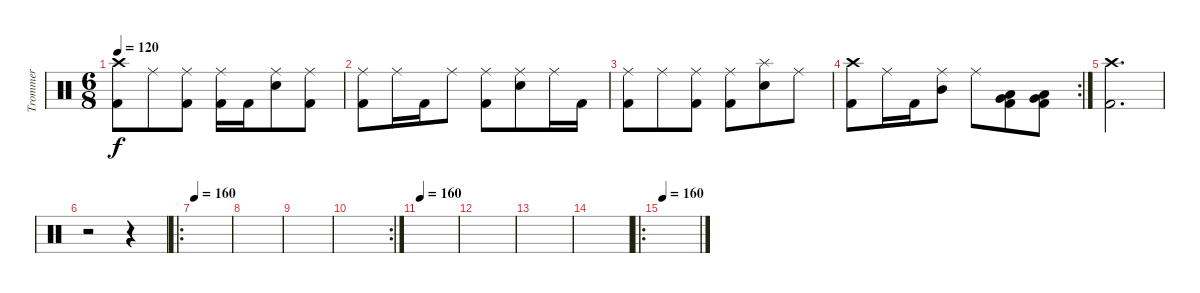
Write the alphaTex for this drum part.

\track ("Trommer" "Trommer") {instrument percussion}
\staff {score}
\articulation defaults
\ts (6 8)
\tempo 120
\clef neutral
\ks c
("Kick (hit) 2" "Crash high (hit)").8{dy f} "Ride (middle)".8 ("Kick (hit) 2" "Ride (middle)").8 ("Kick (hit) 2" "Ride (middle)").16 "Kick (hit) 2".16 ("Snare (hit) 2" "Ride (middle)").8 ("Kick (hit) 2" "Ride (middle)").8 |
("Kick (hit) 2" "Ride (middle)").8 "Ride (middle)".16 "Kick (hit) 2".16 "Ride (middle)".8 ("Kick (hit) 2" "Ride (middle)").8 ("Snare (hit) 2" "Ride (middle)").8 "Ride (middle)".16 "Kick (hit) 2".16 |
("Kick (hit) 2" "Ride (middle)").8 "Ride (middle)".8 ("Kick (hit) 2" "Ride (middle)").8 ("Kick (hit) 2" "Ride (middle)").8 ("Snare (hit) 2" "Splash (hit)").8 "Ride (middle)".8 |
\rc 2
("Kick (hit) 2" "Crash high (hit)").8 "Ride (middle)".16 "Kick (hit) 2".16 ("Mid Tom (hit)" "Ride (middle)").8 "Ride (middle)".8 ("Kick (hit) 2" "Very Low Tom (hit)" "Low Floor Tom (hit)").8 ("Kick (hit) 2" "Very Low Tom (hit)" "Low Floor Tom (hit)").8 |
("Kick (hit) 2" "Crash high (hit)").2{d} |
r.2 r.4 |
\ro
\tempo 160
|
|
|
\rc 2
|
\tempo 160
|
|
|
|
\ro
\tempo 160
